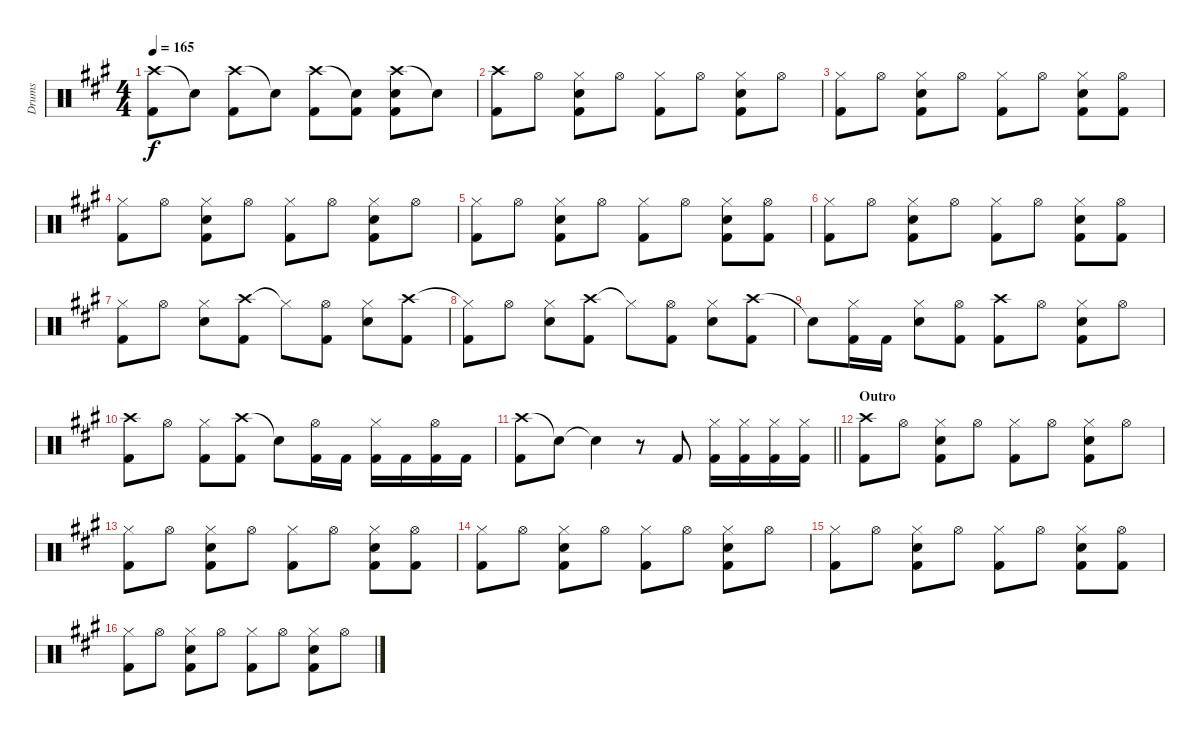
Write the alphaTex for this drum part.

\track ("Drums" "Drums") {instrument percussion}
\staff {score}
\articulation defaults
\ts (4 4)
\tempo 165
\clef neutral
\ks a
("Crash high (hit)" "Kick (hit) 2").8{dy f} "Snare (hit)"{t}.8 ("Crash high (hit)" "Kick (hit) 2").8 "Snare (hit)"{t}.8 ("Crash high (hit)" "Kick (hit) 2").8 ("Snare (hit)"{t} "Kick (hit) 2").8 ("Crash high (hit)" "Snare (hit) 2" "Kick (hit) 2").8 "Snare (hit)"{t}.8 |
("Crash high (hit)" "Kick (hit) 2").8 "Hi-Hat (open)".8 ("Hi-Hat (closed)" "Snare (hit) 2" "Kick (hit) 2").8 "Hi-Hat (open)".8 ("Hi-Hat (closed)" "Kick (hit) 2").8 "Hi-Hat (open)".8 ("Hi-Hat (closed)" "Snare (hit) 2" "Kick (hit) 2").8 "Hi-Hat (open)".8 |
("Hi-Hat (closed)" "Kick (hit) 2").8 "Hi-Hat (open)".8 ("Hi-Hat (closed)" "Snare (hit) 2" "Kick (hit) 2").8 "Hi-Hat (open)".8 ("Hi-Hat (closed)" "Kick (hit) 2").8 "Hi-Hat (open)".8 ("Hi-Hat (closed)" "Snare (hit) 2" "Kick (hit) 2").8 ("Hi-Hat (open)" "Kick (hit) 2").8 |
("Hi-Hat (closed)" "Kick (hit) 2").8 "Hi-Hat (open)".8 ("Hi-Hat (closed)" "Snare (hit) 2" "Kick (hit) 2").8 "Hi-Hat (open)".8 ("Hi-Hat (closed)" "Kick (hit) 2").8 "Hi-Hat (open)".8 ("Hi-Hat (closed)" "Snare (hit) 2" "Kick (hit) 2").8 "Hi-Hat (open)".8 |
("Hi-Hat (closed)" "Kick (hit) 2").8 "Hi-Hat (open)".8 ("Hi-Hat (closed)" "Snare (hit) 2" "Kick (hit) 2").8 "Hi-Hat (open)".8 ("Hi-Hat (closed)" "Kick (hit) 2").8 "Hi-Hat (open)".8 ("Hi-Hat (closed)" "Snare (hit) 2" "Kick (hit) 2").8 ("Hi-Hat (open)" "Kick (hit) 2").8 |
("Hi-Hat (closed)" "Kick (hit) 2").8 "Hi-Hat (open)".8 ("Hi-Hat (closed)" "Snare (hit) 2" "Kick (hit) 2").8 "Hi-Hat (open)".8 ("Hi-Hat (closed)" "Kick (hit) 2").8 "Hi-Hat (open)".8 ("Hi-Hat (closed)" "Snare (hit) 2" "Kick (hit) 2").8 ("Hi-Hat (open)" "Kick (hit) 2").8 |
("Hi-Hat (closed)" "Kick (hit) 2").8 "Hi-Hat (open)".8 ("Hi-Hat (closed)" "Snare (hit) 2").8 ("Crash high (hit)" "Kick (hit) 2").8 "Hi-Hat (closed)"{t}.8 ("Hi-Hat (open)" "Kick (hit) 2").8 ("Hi-Hat (closed)" "Snare (hit) 2").8 ("Crash high (hit)" "Kick (hit) 2").8 |
("Hi-Hat (closed)"{t} "Kick (hit) 2").8 "Hi-Hat (open)".8 ("Hi-Hat (closed)" "Snare (hit) 2").8 ("Crash high (hit)" "Kick (hit) 2").8 "Hi-Hat (closed)"{t}.8 ("Hi-Hat (open)" "Kick (hit) 2").8 ("Hi-Hat (closed)" "Snare (hit) 2").8 ("Crash high (hit)" "Kick (hit) 2").8 |
"Snare (hit)"{t}.8 ("Hi-Hat (closed)" "Kick (hit) 2").16 "Kick (hit) 2".16 ("Hi-Hat (closed)" "Snare (hit) 2").8 ("Hi-Hat (open)" "Kick (hit) 2").8 ("Crash high (hit)" "Kick (hit) 2").8 "Hi-Hat (open)".8 ("Hi-Hat (closed)" "Snare (hit) 2" "Kick (hit) 2").8 "Hi-Hat (open)".8 |
("Crash high (hit)" "Kick (hit) 2").8 "Hi-Hat (open)".8 ("Hi-Hat (closed)" "Kick (hit) 2").8 ("Crash high (hit)" "Kick (hit) 2").8 "Snare (hit)"{t}.8 ("Hi-Hat (open)" "Kick (hit) 2").16 "Kick (hit) 2".16 ("Hi-Hat (closed)" "Kick (hit) 2").16 "Kick (hit) 2".16 ("Hi-Hat (open)" "Kick (hit) 2").16 "Kick (hit) 2".16 |
\barLineRight lightlight
("Crash high (hit)" "Kick (hit) 2").8 "Snare (hit)"{t}.8 "Snare (hit)"{t}.4 r.8 "Kick (hit) 2".8 ("Hi-Hat (closed)" "Kick (hit) 2").16 ("Hi-Hat (closed)" "Kick (hit) 2").16 ("Hi-Hat (closed)" "Kick (hit) 2").16 ("Hi-Hat (closed)" "Kick (hit) 2").16 |
\section ("" "Outro")
("Crash high (hit)" "Kick (hit) 2").8 "Hi-Hat (open)".8 ("Hi-Hat (closed)" "Snare (hit) 2" "Kick (hit) 2").8 "Hi-Hat (open)".8 ("Hi-Hat (closed)" "Kick (hit) 2").8 "Hi-Hat (open)".8 ("Hi-Hat (closed)" "Snare (hit) 2" "Kick (hit) 2").8 "Hi-Hat (open)".8 |
("Hi-Hat (closed)" "Kick (hit) 2").8 "Hi-Hat (open)".8 ("Hi-Hat (closed)" "Snare (hit) 2" "Kick (hit) 2").8 "Hi-Hat (open)".8 ("Hi-Hat (closed)" "Kick (hit) 2").8 "Hi-Hat (open)".8 ("Hi-Hat (closed)" "Snare (hit) 2" "Kick (hit) 2").8 ("Hi-Hat (open)" "Kick (hit) 2").8 |
("Hi-Hat (closed)" "Kick (hit) 2").8 "Hi-Hat (open)".8 ("Hi-Hat (closed)" "Snare (hit) 2" "Kick (hit) 2").8 "Hi-Hat (open)".8 ("Hi-Hat (closed)" "Kick (hit) 2").8 "Hi-Hat (open)".8 ("Hi-Hat (closed)" "Snare (hit) 2" "Kick (hit) 2").8 "Hi-Hat (open)".8 |
("Hi-Hat (closed)" "Kick (hit) 2").8 "Hi-Hat (open)".8 ("Hi-Hat (closed)" "Snare (hit) 2" "Kick (hit) 2").8 "Hi-Hat (open)".8 ("Hi-Hat (closed)" "Kick (hit) 2").8 "Hi-Hat (open)".8 ("Hi-Hat (closed)" "Snare (hit) 2" "Kick (hit) 2").8 ("Hi-Hat (open)" "Kick (hit) 2").8 |
("Hi-Hat (closed)" "Kick (hit) 2").8 "Hi-Hat (open)".8 ("Hi-Hat (closed)" "Snare (hit) 2" "Kick (hit) 2").8 "Hi-Hat (open)".8 ("Hi-Hat (closed)" "Kick (hit) 2").8 "Hi-Hat (open)".8 ("Hi-Hat (closed)" "Snare (hit) 2" "Kick (hit) 2").8 "Hi-Hat (open)".8
